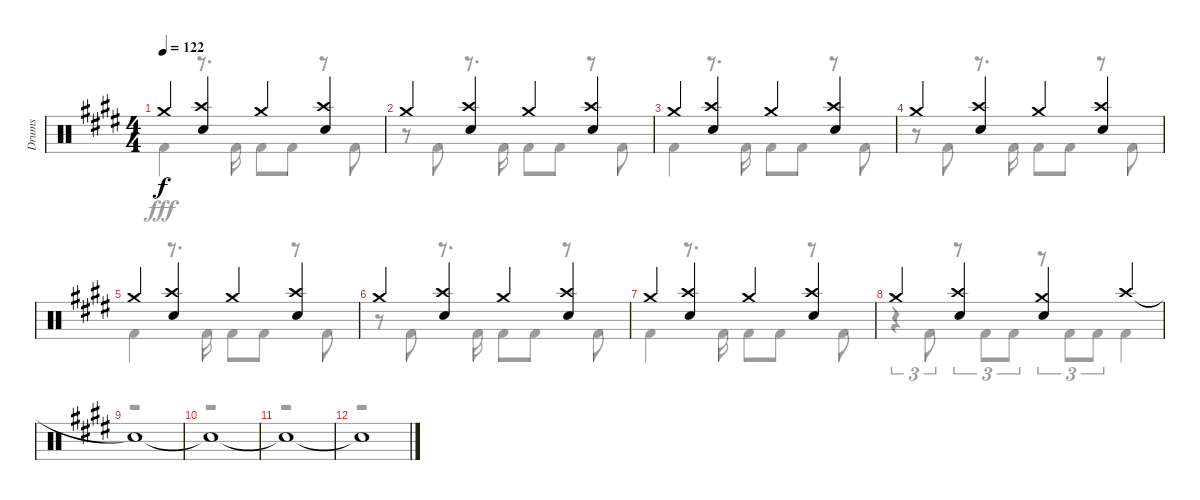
\track ("Drums" "Drums") {instrument percussion}
\staff {score}
\articulation defaults
\voice
\ts (4 4)
\tempo 122
\clef neutral
\ks e "Crash medium (hit)".4{dy f}
("Crash high (hit)" "Snare (hit) 2").4 "Crash medium (hit)".4 ("Crash high (hit)" "Snare (hit) 2").4 |
"Crash medium (hit)".4 ("Crash high (hit)" "Snare (hit) 2").4 "Crash medium (hit)".4 ("Crash high (hit)" "Snare (hit) 2").4 |
"Crash medium (hit)".4 ("Crash high (hit)" "Snare (hit) 2").4 "Crash medium (hit)".4 ("Crash high (hit)" "Snare (hit) 2").4 |
"Crash medium (hit)".4 ("Crash high (hit)" "Snare (hit) 2").4 "Crash medium (hit)".4 ("Crash high (hit)" "Snare (hit) 2").4 |
"Crash medium (hit)".4 ("Crash high (hit)" "Snare (hit) 2").4 "Crash medium (hit)".4 ("Crash high (hit)" "Snare (hit) 2").4 |
"Crash medium (hit)".4 ("Crash high (hit)" "Snare (hit) 2").4 "Crash medium (hit)".4 ("Crash high (hit)" "Snare (hit) 2").4 |
"Crash medium (hit)".4 ("Crash high (hit)" "Snare (hit) 2").4 "Crash medium (hit)".4 ("Crash high (hit)" "Snare (hit) 2").4 |
"Crash medium (hit)".4 ("Crash high (hit)" "Snare (hit) 2").4 ("Crash medium (hit)" "Snare (hit) 2").4 "Crash high (hit)".4 |
"Snare (hit)"{t}.1 |
"Snare (hit)"{t}.1 |
"Snare (hit)"{t}.1 |
"Snare (hit)"{t}.1
\voice
\clef neutral
\ottava regular
\simile none
\ks e "Kick (hit) 2".4{dy fff}
r.8{d} "Kick (hit) 2".16 "Kick (hit) 2".8 "Kick (hit) 2".8 r.8 "Kick (hit) 2".8 |
r.8 "Kick (hit) 2".8 r.8{d} "Kick (hit) 2".16 "Kick (hit) 2".8 "Kick (hit) 2".8 r.8 "Kick (hit) 2".8 |
"Kick (hit) 2".4 r.8{d} "Kick (hit) 2".16 "Kick (hit) 2".8 "Kick (hit) 2".8 r.8 "Kick (hit) 2".8 |
r.8 "Kick (hit) 2".8 r.8{d} "Kick (hit) 2".16 "Kick (hit) 2".8 "Kick (hit) 2".8 r.8 "Kick (hit) 2".8 |
"Kick (hit) 2".4 r.8{d} "Kick (hit) 2".16 "Kick (hit) 2".8 "Kick (hit) 2".8 r.8 "Kick (hit) 2".8 |
r.8 "Kick (hit) 2".8 r.8{d} "Kick (hit) 2".16 "Kick (hit) 2".8 "Kick (hit) 2".8 r.8 "Kick (hit) 2".8 |
"Kick (hit) 2".4 r.8{d} "Kick (hit) 2".16 "Kick (hit) 2".8 "Kick (hit) 2".8 r.8 "Kick (hit) 2".8 |
r.4{tu (3 2)} "Kick (hit) 2".8{tu (3 2)} r.8{tu (3 2)} "Kick (hit) 2".8{tu (3 2)} "Kick (hit) 2".8{tu (3 2)} r.8{tu (3 2)} "Kick (hit) 2".8{tu (3 2)} "Kick (hit) 2".8{tu (3 2)} "Kick (hit) 2".4 |
r.1 |
r.1 |
r.1 |
r.1
